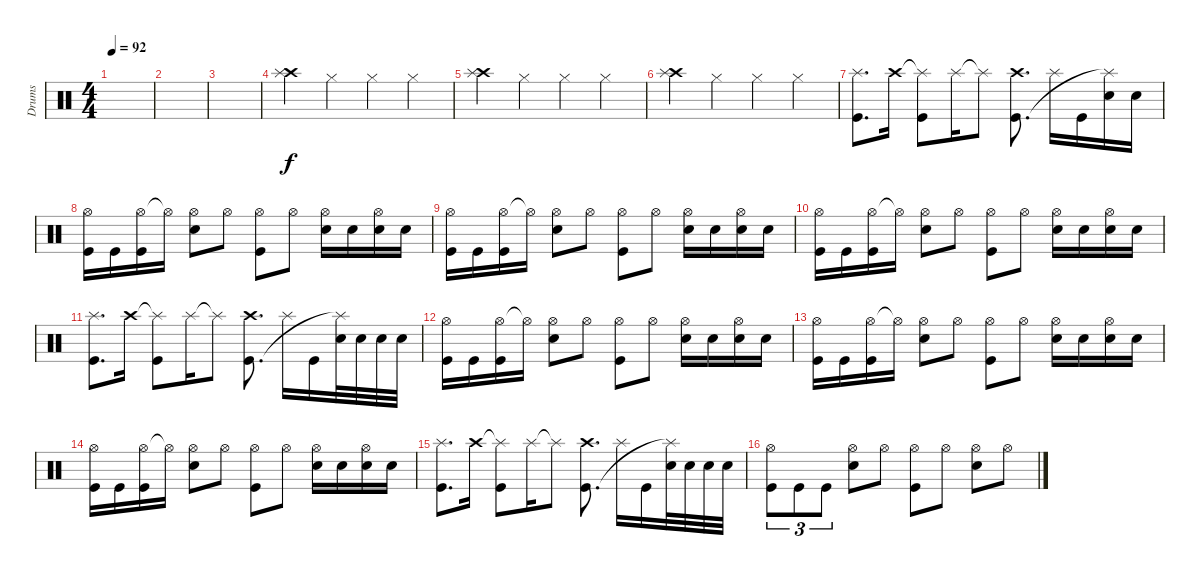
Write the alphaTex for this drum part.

\track ("Drums" "Drums") {instrument percussion}
\staff {score}
\articulation defaults
\ts (4 4)
\tempo 92
\clef neutral
\ks c
|
|
|
("Crash high (hit)" "Splash (hit)").4 "Hi-Hat (closed)".4 "Hi-Hat (closed)".4 "Hi-Hat (closed)".4 |
("Crash high (hit)" "Splash (hit)").4 "Hi-Hat (closed)".4 "Hi-Hat (closed)".4 "Hi-Hat (closed)".4 |
("Crash high (hit)" "Splash (hit)").4 "Hi-Hat (closed)".4 "Hi-Hat (closed)".4 "Hi-Hat (closed)".4 |
("Splash (hit)" "Kick (hit)").8{d} "Crash high (hit)".16 ("Splash (hit)"{t} "Kick (hit)").8 "Splash (hit)".16 "Splash (hit)"{t}.8 ("Crash high (hit)" "Kick (hit)").8{d} "Splash (hit)".16 "Kick (hit)".16 ("Electric Snare (hit)" "Splash (hit)"{t}).16 "Electric Snare (hit)".16 |
("Hi-Hat (open)" "Kick (hit)").16 "Kick (hit)".16 ("Hi-Hat (open)" "Kick (hit)").16 "Hi-Hat (open)"{t}.16 ("Hi-Hat (open)" "Electric Snare (hit)").8 "Hi-Hat (open)".8 ("Hi-Hat (open)" "Kick (hit)").8 "Hi-Hat (open)".8 ("Hi-Hat (open)" "Electric Snare (hit)").16 "Electric Snare (hit)".16 ("Hi-Hat (open)" "Electric Snare (hit)").16 "Electric Snare (hit)".16 |
("Hi-Hat (open)" "Kick (hit)").16 "Kick (hit)".16 ("Hi-Hat (open)" "Kick (hit)").16 "Hi-Hat (open)"{t}.16 ("Hi-Hat (open)" "Electric Snare (hit)").8 "Hi-Hat (open)".8 ("Hi-Hat (open)" "Kick (hit)").8 "Hi-Hat (open)".8 ("Hi-Hat (open)" "Electric Snare (hit)").16 "Electric Snare (hit)".16 ("Hi-Hat (open)" "Electric Snare (hit)").16 "Electric Snare (hit)".16 |
("Hi-Hat (open)" "Kick (hit)").16 "Kick (hit)".16 ("Hi-Hat (open)" "Kick (hit)").16 "Hi-Hat (open)"{t}.16 ("Hi-Hat (open)" "Electric Snare (hit)").8 "Hi-Hat (open)".8 ("Hi-Hat (open)" "Kick (hit)").8 "Hi-Hat (open)".8 ("Hi-Hat (open)" "Electric Snare (hit)").16 "Electric Snare (hit)".16 ("Hi-Hat (open)" "Electric Snare (hit)").16 "Electric Snare (hit)".16 |
("Splash (hit)" "Kick (hit)").8{d} "Crash high (hit)".16 ("Splash (hit)"{t} "Kick (hit)").8 "Splash (hit)".16 "Splash (hit)"{t}.8 ("Crash high (hit)" "Kick (hit)").8{d} "Splash (hit)".16 "Kick (hit)".16 ("Electric Snare (hit)" "Splash (hit)"{t}).32 "Electric Snare (hit)".32 "Electric Snare (hit)".32 "Electric Snare (hit)".32 |
("Hi-Hat (open)" "Kick (hit)").16 "Kick (hit)".16 ("Hi-Hat (open)" "Kick (hit)").16 "Hi-Hat (open)"{t}.16 ("Hi-Hat (open)" "Electric Snare (hit)").8 "Hi-Hat (open)".8 ("Hi-Hat (open)" "Kick (hit)").8 "Hi-Hat (open)".8 ("Hi-Hat (open)" "Electric Snare (hit)").16 "Electric Snare (hit)".16 ("Hi-Hat (open)" "Electric Snare (hit)").16 "Electric Snare (hit)".16 |
("Hi-Hat (open)" "Kick (hit)").16 "Kick (hit)".16 ("Hi-Hat (open)" "Kick (hit)").16 "Hi-Hat (open)"{t}.16 ("Hi-Hat (open)" "Electric Snare (hit)").8 "Hi-Hat (open)".8 ("Hi-Hat (open)" "Kick (hit)").8 "Hi-Hat (open)".8 ("Hi-Hat (open)" "Electric Snare (hit)").16 "Electric Snare (hit)".16 ("Hi-Hat (open)" "Electric Snare (hit)").16 "Electric Snare (hit)".16 |
("Hi-Hat (open)" "Kick (hit)").16 "Kick (hit)".16 ("Hi-Hat (open)" "Kick (hit)").16 "Hi-Hat (open)"{t}.16 ("Hi-Hat (open)" "Electric Snare (hit)").8 "Hi-Hat (open)".8 ("Hi-Hat (open)" "Kick (hit)").8 "Hi-Hat (open)".8 ("Hi-Hat (open)" "Electric Snare (hit)").16 "Electric Snare (hit)".16 ("Hi-Hat (open)" "Electric Snare (hit)").16 "Electric Snare (hit)".16 |
("Splash (hit)" "Kick (hit)").8{d} "Crash high (hit)".16 ("Splash (hit)"{t} "Kick (hit)").8 "Splash (hit)".16 "Splash (hit)"{t}.8 ("Crash high (hit)" "Kick (hit)").8{d} "Splash (hit)".16 "Kick (hit)".16 ("Electric Snare (hit)" "Splash (hit)"{t}).32 "Electric Snare (hit)".32 "Electric Snare (hit)".32 "Electric Snare (hit)".32 |
("Hi-Hat (open)" "Kick (hit)").8{tu (3 2)} "Kick (hit)".8{tu (3 2)} "Kick (hit)".8{tu (3 2)} ("Hi-Hat (open)" "Electric Snare (hit)").8 "Hi-Hat (open)".8 ("Hi-Hat (open)" "Kick (hit)").8 "Hi-Hat (open)".8 ("Hi-Hat (open)" "Electric Snare (hit)").8 "Hi-Hat (open)".8
